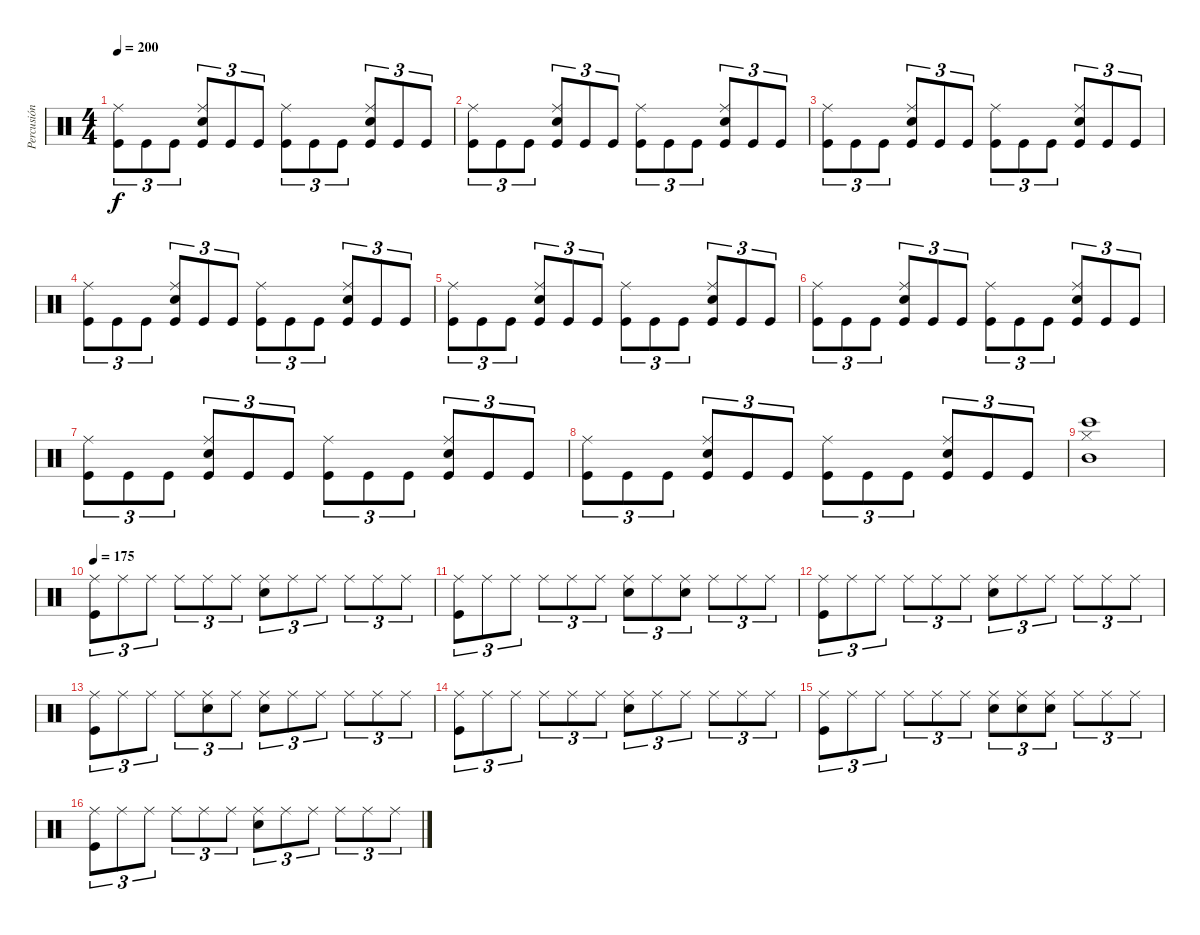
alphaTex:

\track ("Percusión" "Percusión") {instrument percussion}
\staff {score}
\articulation defaults
\ts (4 4)
\tempo 200
\clef neutral
\ks c
("Kick (hit)" "Ride (middle)").8{tu (3 2) dy f} "Kick (hit)".8{tu (3 2)} "Kick (hit)".8{tu (3 2)} ("Kick (hit)" "Electric Snare (hit)" "Ride (middle)").8{tu (3 2)} "Kick (hit)".8{tu (3 2)} "Kick (hit)".8{tu (3 2)} ("Kick (hit)" "Ride (middle)").8{tu (3 2)} "Kick (hit)".8{tu (3 2)} "Kick (hit)".8{tu (3 2)} ("Kick (hit)" "Electric Snare (hit)" "Ride (middle)").8{tu (3 2)} "Kick (hit)".8{tu (3 2)} "Kick (hit)".8{tu (3 2)} |
("Kick (hit)" "Ride (middle)").8{tu (3 2)} "Kick (hit)".8{tu (3 2)} "Kick (hit)".8{tu (3 2)} ("Kick (hit)" "Electric Snare (hit)" "Ride (middle)").8{tu (3 2)} "Kick (hit)".8{tu (3 2)} "Kick (hit)".8{tu (3 2)} ("Kick (hit)" "Ride (middle)").8{tu (3 2)} "Kick (hit)".8{tu (3 2)} "Kick (hit)".8{tu (3 2)} ("Kick (hit)" "Electric Snare (hit)" "Ride (middle)").8{tu (3 2)} "Kick (hit)".8{tu (3 2)} "Kick (hit)".8{tu (3 2)} |
("Kick (hit)" "Ride (middle)").8{tu (3 2)} "Kick (hit)".8{tu (3 2)} "Kick (hit)".8{tu (3 2)} ("Kick (hit)" "Electric Snare (hit)" "Ride (middle)").8{tu (3 2)} "Kick (hit)".8{tu (3 2)} "Kick (hit)".8{tu (3 2)} ("Kick (hit)" "Ride (middle)").8{tu (3 2)} "Kick (hit)".8{tu (3 2)} "Kick (hit)".8{tu (3 2)} ("Kick (hit)" "Electric Snare (hit)" "Ride (middle)").8{tu (3 2)} "Kick (hit)".8{tu (3 2)} "Kick (hit)".8{tu (3 2)} |
("Kick (hit)" "Ride (middle)").8{tu (3 2)} "Kick (hit)".8{tu (3 2)} "Kick (hit)".8{tu (3 2)} ("Kick (hit)" "Electric Snare (hit)" "Ride (middle)").8{tu (3 2)} "Kick (hit)".8{tu (3 2)} "Kick (hit)".8{tu (3 2)} ("Kick (hit)" "Ride (middle)").8{tu (3 2)} "Kick (hit)".8{tu (3 2)} "Kick (hit)".8{tu (3 2)} ("Kick (hit)" "Electric Snare (hit)" "Ride (middle)").8{tu (3 2)} "Kick (hit)".8{tu (3 2)} "Kick (hit)".8{tu (3 2)} |
("Kick (hit)" "Ride (middle)").8{tu (3 2)} "Kick (hit)".8{tu (3 2)} "Kick (hit)".8{tu (3 2)} ("Kick (hit)" "Electric Snare (hit)" "Ride (middle)").8{tu (3 2)} "Kick (hit)".8{tu (3 2)} "Kick (hit)".8{tu (3 2)} ("Kick (hit)" "Ride (middle)").8{tu (3 2)} "Kick (hit)".8{tu (3 2)} "Kick (hit)".8{tu (3 2)} ("Kick (hit)" "Electric Snare (hit)" "Ride (middle)").8{tu (3 2)} "Kick (hit)".8{tu (3 2)} "Kick (hit)".8{tu (3 2)} |
("Kick (hit)" "Ride (middle)").8{tu (3 2)} "Kick (hit)".8{tu (3 2)} "Kick (hit)".8{tu (3 2)} ("Kick (hit)" "Electric Snare (hit)" "Ride (middle)").8{tu (3 2)} "Kick (hit)".8{tu (3 2)} "Kick (hit)".8{tu (3 2)} ("Kick (hit)" "Ride (middle)").8{tu (3 2)} "Kick (hit)".8{tu (3 2)} "Kick (hit)".8{tu (3 2)} ("Kick (hit)" "Electric Snare (hit)" "Ride (middle)").8{tu (3 2)} "Kick (hit)".8{tu (3 2)} "Kick (hit)".8{tu (3 2)} |
("Kick (hit)" "Ride (middle)").8{tu (3 2)} "Kick (hit)".8{tu (3 2)} "Kick (hit)".8{tu (3 2)} ("Kick (hit)" "Electric Snare (hit)" "Ride (middle)").8{tu (3 2)} "Kick (hit)".8{tu (3 2)} "Kick (hit)".8{tu (3 2)} ("Kick (hit)" "Ride (middle)").8{tu (3 2)} "Kick (hit)".8{tu (3 2)} "Kick (hit)".8{tu (3 2)} ("Kick (hit)" "Electric Snare (hit)" "Ride (middle)").8{tu (3 2)} "Kick (hit)".8{tu (3 2)} "Kick (hit)".8{tu (3 2)} |
("Kick (hit)" "Ride (middle)").8{tu (3 2)} "Kick (hit)".8{tu (3 2)} "Kick (hit)".8{tu (3 2)} ("Kick (hit)" "Electric Snare (hit)" "Ride (middle)").8{tu (3 2)} "Kick (hit)".8{tu (3 2)} "Kick (hit)".8{tu (3 2)} ("Kick (hit)" "Ride (middle)").8{tu (3 2)} "Kick (hit)".8{tu (3 2)} "Kick (hit)".8{tu (3 2)} ("Kick (hit)" "Electric Snare (hit)" "Ride (middle)").8{tu (3 2)} "Kick (hit)".8{tu (3 2)} "Kick (hit)".8{tu (3 2)} |
("Hi-Hat (closed)" "Bongo High (hit)" "Mid Tom (hit)").1 |
\tempo 175
("Ride (middle)" "Kick (hit)").8{tu (3 2)} "Ride (middle)".8{tu (3 2)} "Ride (middle)".8{tu (3 2)} "Ride (middle)".8{tu (3 2)} "Ride (middle)".8{tu (3 2)} "Ride (middle)".8{tu (3 2)} ("Ride (middle)" "Electric Snare (hit)").8{tu (3 2)} "Ride (middle)".8{tu (3 2)} "Ride (middle)".8{tu (3 2)} "Ride (middle)".8{tu (3 2)} "Ride (middle)".8{tu (3 2)} "Ride (middle)".8{tu (3 2)} |
("Ride (middle)" "Kick (hit)").8{tu (3 2)} "Ride (middle)".8{tu (3 2)} "Ride (middle)".8{tu (3 2)} "Ride (middle)".8{tu (3 2)} "Ride (middle)".8{tu (3 2)} "Ride (middle)".8{tu (3 2)} ("Ride (middle)" "Electric Snare (hit)").8{tu (3 2)} "Ride (middle)".8{tu (3 2)} ("Ride (middle)" "Electric Snare (hit)").8{tu (3 2)} "Ride (middle)".8{tu (3 2)} "Ride (middle)".8{tu (3 2)} "Ride (middle)".8{tu (3 2)} |
("Ride (middle)" "Kick (hit)").8{tu (3 2)} "Ride (middle)".8{tu (3 2)} "Ride (middle)".8{tu (3 2)} "Ride (middle)".8{tu (3 2)} "Ride (middle)".8{tu (3 2)} "Ride (middle)".8{tu (3 2)} ("Ride (middle)" "Electric Snare (hit)").8{tu (3 2)} "Ride (middle)".8{tu (3 2)} "Ride (middle)".8{tu (3 2)} "Ride (middle)".8{tu (3 2)} "Ride (middle)".8{tu (3 2)} "Ride (middle)".8{tu (3 2)} |
("Ride (middle)" "Kick (hit)").8{tu (3 2)} "Ride (middle)".8{tu (3 2)} "Ride (middle)".8{tu (3 2)} "Ride (middle)".8{tu (3 2)} ("Ride (middle)" "Electric Snare (hit)").8{tu (3 2)} "Ride (middle)".8{tu (3 2)} ("Ride (middle)" "Electric Snare (hit)").8{tu (3 2)} "Ride (middle)".8{tu (3 2)} "Ride (middle)".8{tu (3 2)} "Ride (middle)".8{tu (3 2)} "Ride (middle)".8{tu (3 2)} "Ride (middle)".8{tu (3 2)} |
("Ride (middle)" "Kick (hit)").8{tu (3 2)} "Ride (middle)".8{tu (3 2)} "Ride (middle)".8{tu (3 2)} "Ride (middle)".8{tu (3 2)} "Ride (middle)".8{tu (3 2)} "Ride (middle)".8{tu (3 2)} ("Ride (middle)" "Electric Snare (hit)").8{tu (3 2)} "Ride (middle)".8{tu (3 2)} "Ride (middle)".8{tu (3 2)} "Ride (middle)".8{tu (3 2)} "Ride (middle)".8{tu (3 2)} "Ride (middle)".8{tu (3 2)} |
("Ride (middle)" "Kick (hit)").8{tu (3 2)} "Ride (middle)".8{tu (3 2)} "Ride (middle)".8{tu (3 2)} "Ride (middle)".8{tu (3 2)} "Ride (middle)".8{tu (3 2)} "Ride (middle)".8{tu (3 2)} ("Ride (middle)" "Electric Snare (hit)").8{tu (3 2)} ("Ride (middle)" "Electric Snare (hit)").8{tu (3 2)} ("Ride (middle)" "Electric Snare (hit)").8{tu (3 2)} "Ride (middle)".8{tu (3 2)} "Ride (middle)".8{tu (3 2)} "Ride (middle)".8{tu (3 2)} |
("Ride (middle)" "Kick (hit)").8{tu (3 2)} "Ride (middle)".8{tu (3 2)} "Ride (middle)".8{tu (3 2)} "Ride (middle)".8{tu (3 2)} "Ride (middle)".8{tu (3 2)} "Ride (middle)".8{tu (3 2)} ("Ride (middle)" "Electric Snare (hit)").8{tu (3 2)} "Ride (middle)".8{tu (3 2)} "Ride (middle)".8{tu (3 2)} "Ride (middle)".8{tu (3 2)} "Ride (middle)".8{tu (3 2)} "Ride (middle)".8{tu (3 2)}
